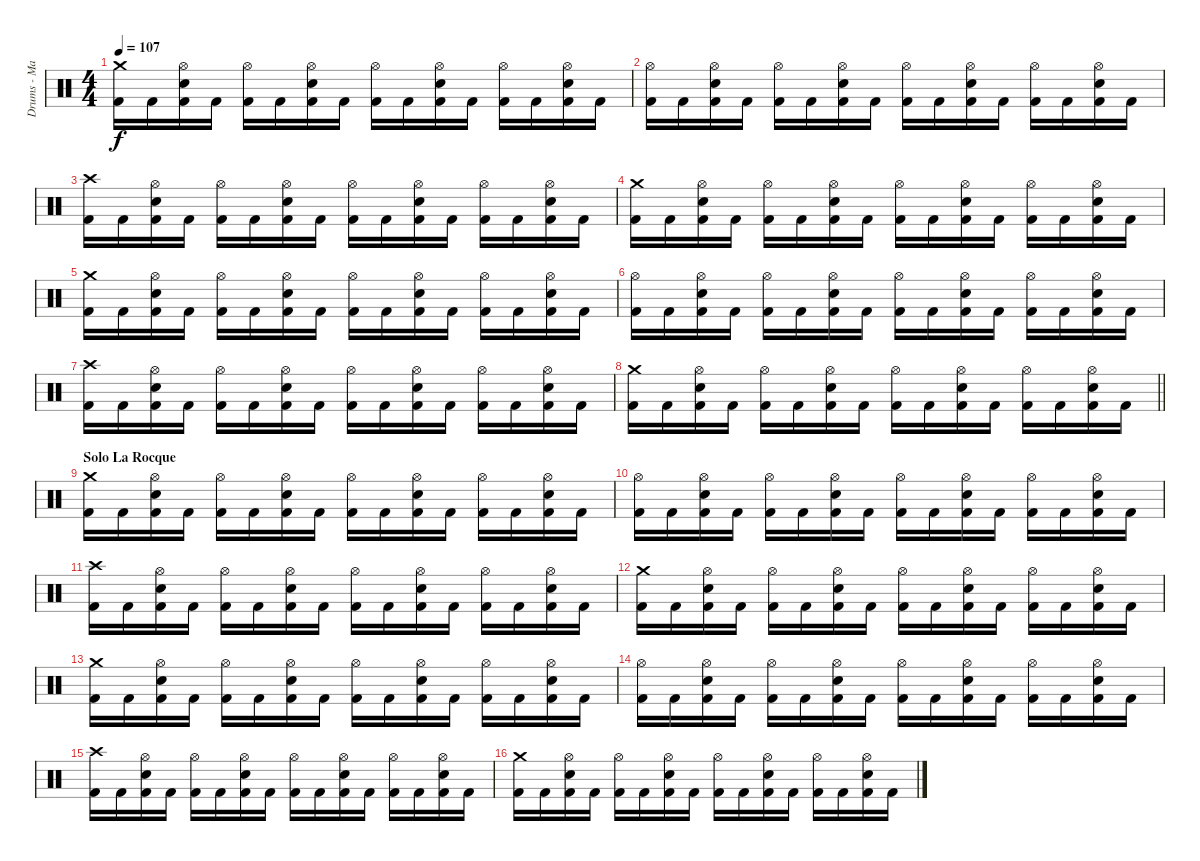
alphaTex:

\track ("Drums - Matt Thompson" "Drums - Ma") {instrument percussion}
\staff {score}
\articulation defaults
\ts (4 4)
\tempo 107
\clef neutral
\ks c
("Crash medium (hit)" "Kick (hit) 2").16{dy f} "Kick (hit) 2".16 ("Hi-Hat (open)" "Snare (hit) 2" "Kick (hit) 2").16 "Kick (hit) 2".16 ("Hi-Hat (open)" "Kick (hit) 2").16 "Kick (hit) 2".16 ("Hi-Hat (open)" "Snare (hit) 2" "Kick (hit) 2").16 "Kick (hit) 2".16 ("Hi-Hat (open)" "Kick (hit) 2").16 "Kick (hit) 2".16 ("Hi-Hat (open)" "Snare (hit) 2" "Kick (hit) 2").16 "Kick (hit) 2".16 ("Hi-Hat (open)" "Kick (hit) 2").16 "Kick (hit) 2".16 ("Hi-Hat (open)" "Snare (hit) 2" "Kick (hit) 2").16 "Kick (hit) 2".16 |
("Hi-Hat (open)" "Kick (hit) 2").16 "Kick (hit) 2".16 ("Hi-Hat (open)" "Snare (hit) 2" "Kick (hit) 2").16 "Kick (hit) 2".16 ("Hi-Hat (open)" "Kick (hit) 2").16 "Kick (hit) 2".16 ("Hi-Hat (open)" "Snare (hit) 2" "Kick (hit) 2").16 "Kick (hit) 2".16 ("Hi-Hat (open)" "Kick (hit) 2").16 "Kick (hit) 2".16 ("Hi-Hat (open)" "Snare (hit) 2" "Kick (hit) 2").16 "Kick (hit) 2".16 ("Hi-Hat (open)" "Kick (hit) 2").16 "Kick (hit) 2".16 ("Hi-Hat (open)" "Snare (hit) 2" "Kick (hit) 2").16 "Kick (hit) 2".16 |
("Crash high (hit)" "Kick (hit) 2").16 "Kick (hit) 2".16 ("Hi-Hat (open)" "Snare (hit) 2" "Kick (hit) 2").16 "Kick (hit) 2".16 ("Hi-Hat (open)" "Kick (hit) 2").16 "Kick (hit) 2".16 ("Hi-Hat (open)" "Snare (hit) 2" "Kick (hit) 2").16 "Kick (hit) 2".16 ("Hi-Hat (open)" "Kick (hit) 2").16 "Kick (hit) 2".16 ("Hi-Hat (open)" "Snare (hit) 2" "Kick (hit) 2").16 "Kick (hit) 2".16 ("Hi-Hat (open)" "Kick (hit) 2").16 "Kick (hit) 2".16 ("Hi-Hat (open)" "Snare (hit) 2" "Kick (hit) 2").16 "Kick (hit) 2".16 |
("Crash medium (hit)" "Kick (hit) 2").16 "Kick (hit) 2".16 ("Hi-Hat (open)" "Snare (hit) 2" "Kick (hit) 2").16 "Kick (hit) 2".16 ("Hi-Hat (open)" "Kick (hit) 2").16 "Kick (hit) 2".16 ("Hi-Hat (open)" "Snare (hit) 2" "Kick (hit) 2").16 "Kick (hit) 2".16 ("Hi-Hat (open)" "Kick (hit) 2").16 "Kick (hit) 2".16 ("Hi-Hat (open)" "Snare (hit) 2" "Kick (hit) 2").16 "Kick (hit) 2".16 ("Hi-Hat (open)" "Kick (hit) 2").16 "Kick (hit) 2".16 ("Hi-Hat (open)" "Snare (hit) 2" "Kick (hit) 2").16 "Kick (hit) 2".16 |
("Crash medium (hit)" "Kick (hit) 2").16 "Kick (hit) 2".16 ("Hi-Hat (open)" "Snare (hit) 2" "Kick (hit) 2").16 "Kick (hit) 2".16 ("Hi-Hat (open)" "Kick (hit) 2").16 "Kick (hit) 2".16 ("Hi-Hat (open)" "Snare (hit) 2" "Kick (hit) 2").16 "Kick (hit) 2".16 ("Hi-Hat (open)" "Kick (hit) 2").16 "Kick (hit) 2".16 ("Hi-Hat (open)" "Snare (hit) 2" "Kick (hit) 2").16 "Kick (hit) 2".16 ("Hi-Hat (open)" "Kick (hit) 2").16 "Kick (hit) 2".16 ("Hi-Hat (open)" "Snare (hit) 2" "Kick (hit) 2").16 "Kick (hit) 2".16 |
("Hi-Hat (open)" "Kick (hit) 2").16 "Kick (hit) 2".16 ("Hi-Hat (open)" "Snare (hit) 2" "Kick (hit) 2").16 "Kick (hit) 2".16 ("Hi-Hat (open)" "Kick (hit) 2").16 "Kick (hit) 2".16 ("Hi-Hat (open)" "Snare (hit) 2" "Kick (hit) 2").16 "Kick (hit) 2".16 ("Hi-Hat (open)" "Kick (hit) 2").16 "Kick (hit) 2".16 ("Hi-Hat (open)" "Snare (hit) 2" "Kick (hit) 2").16 "Kick (hit) 2".16 ("Hi-Hat (open)" "Kick (hit) 2").16 "Kick (hit) 2".16 ("Hi-Hat (open)" "Snare (hit) 2" "Kick (hit) 2").16 "Kick (hit) 2".16 |
("Crash high (hit)" "Kick (hit) 2").16 "Kick (hit) 2".16 ("Hi-Hat (open)" "Snare (hit) 2" "Kick (hit) 2").16 "Kick (hit) 2".16 ("Hi-Hat (open)" "Kick (hit) 2").16 "Kick (hit) 2".16 ("Hi-Hat (open)" "Snare (hit) 2" "Kick (hit) 2").16 "Kick (hit) 2".16 ("Hi-Hat (open)" "Kick (hit) 2").16 "Kick (hit) 2".16 ("Hi-Hat (open)" "Snare (hit) 2" "Kick (hit) 2").16 "Kick (hit) 2".16 ("Hi-Hat (open)" "Kick (hit) 2").16 "Kick (hit) 2".16 ("Hi-Hat (open)" "Snare (hit) 2" "Kick (hit) 2").16 "Kick (hit) 2".16 |
\barLineRight lightlight
("Crash medium (hit)" "Kick (hit) 2").16 "Kick (hit) 2".16 ("Hi-Hat (open)" "Snare (hit) 2" "Kick (hit) 2").16 "Kick (hit) 2".16 ("Hi-Hat (open)" "Kick (hit) 2").16 "Kick (hit) 2".16 ("Hi-Hat (open)" "Snare (hit) 2" "Kick (hit) 2").16 "Kick (hit) 2".16 ("Hi-Hat (open)" "Kick (hit) 2").16 "Kick (hit) 2".16 ("Hi-Hat (open)" "Snare (hit) 2" "Kick (hit) 2").16 "Kick (hit) 2".16 ("Hi-Hat (open)" "Kick (hit) 2").16 "Kick (hit) 2".16 ("Hi-Hat (open)" "Snare (hit) 2" "Kick (hit) 2").16 "Kick (hit) 2".16 |
\section ("" "Solo La Rocque")
("Crash medium (hit)" "Kick (hit) 2").16 "Kick (hit) 2".16 ("Hi-Hat (open)" "Snare (hit) 2" "Kick (hit) 2").16 "Kick (hit) 2".16 ("Hi-Hat (open)" "Kick (hit) 2").16 "Kick (hit) 2".16 ("Hi-Hat (open)" "Snare (hit) 2" "Kick (hit) 2").16 "Kick (hit) 2".16 ("Hi-Hat (open)" "Kick (hit) 2").16 "Kick (hit) 2".16 ("Hi-Hat (open)" "Snare (hit) 2" "Kick (hit) 2").16 "Kick (hit) 2".16 ("Hi-Hat (open)" "Kick (hit) 2").16 "Kick (hit) 2".16 ("Hi-Hat (open)" "Snare (hit) 2" "Kick (hit) 2").16 "Kick (hit) 2".16 |
("Hi-Hat (open)" "Kick (hit) 2").16 "Kick (hit) 2".16 ("Hi-Hat (open)" "Snare (hit) 2" "Kick (hit) 2").16 "Kick (hit) 2".16 ("Hi-Hat (open)" "Kick (hit) 2").16 "Kick (hit) 2".16 ("Hi-Hat (open)" "Snare (hit) 2" "Kick (hit) 2").16 "Kick (hit) 2".16 ("Hi-Hat (open)" "Kick (hit) 2").16 "Kick (hit) 2".16 ("Hi-Hat (open)" "Snare (hit) 2" "Kick (hit) 2").16 "Kick (hit) 2".16 ("Hi-Hat (open)" "Kick (hit) 2").16 "Kick (hit) 2".16 ("Hi-Hat (open)" "Snare (hit) 2" "Kick (hit) 2").16 "Kick (hit) 2".16 |
("Crash high (hit)" "Kick (hit) 2").16 "Kick (hit) 2".16 ("Hi-Hat (open)" "Snare (hit) 2" "Kick (hit) 2").16 "Kick (hit) 2".16 ("Hi-Hat (open)" "Kick (hit) 2").16 "Kick (hit) 2".16 ("Hi-Hat (open)" "Snare (hit) 2" "Kick (hit) 2").16 "Kick (hit) 2".16 ("Hi-Hat (open)" "Kick (hit) 2").16 "Kick (hit) 2".16 ("Hi-Hat (open)" "Snare (hit) 2" "Kick (hit) 2").16 "Kick (hit) 2".16 ("Hi-Hat (open)" "Kick (hit) 2").16 "Kick (hit) 2".16 ("Hi-Hat (open)" "Snare (hit) 2" "Kick (hit) 2").16 "Kick (hit) 2".16 |
("Crash medium (hit)" "Kick (hit) 2").16 "Kick (hit) 2".16 ("Hi-Hat (open)" "Snare (hit) 2" "Kick (hit) 2").16 "Kick (hit) 2".16 ("Hi-Hat (open)" "Kick (hit) 2").16 "Kick (hit) 2".16 ("Hi-Hat (open)" "Snare (hit) 2" "Kick (hit) 2").16 "Kick (hit) 2".16 ("Hi-Hat (open)" "Kick (hit) 2").16 "Kick (hit) 2".16 ("Hi-Hat (open)" "Snare (hit) 2" "Kick (hit) 2").16 "Kick (hit) 2".16 ("Hi-Hat (open)" "Kick (hit) 2").16 "Kick (hit) 2".16 ("Hi-Hat (open)" "Snare (hit) 2" "Kick (hit) 2").16 "Kick (hit) 2".16 |
("Crash medium (hit)" "Kick (hit) 2").16 "Kick (hit) 2".16 ("Hi-Hat (open)" "Snare (hit) 2" "Kick (hit) 2").16 "Kick (hit) 2".16 ("Hi-Hat (open)" "Kick (hit) 2").16 "Kick (hit) 2".16 ("Hi-Hat (open)" "Snare (hit) 2" "Kick (hit) 2").16 "Kick (hit) 2".16 ("Hi-Hat (open)" "Kick (hit) 2").16 "Kick (hit) 2".16 ("Hi-Hat (open)" "Snare (hit) 2" "Kick (hit) 2").16 "Kick (hit) 2".16 ("Hi-Hat (open)" "Kick (hit) 2").16 "Kick (hit) 2".16 ("Hi-Hat (open)" "Snare (hit) 2" "Kick (hit) 2").16 "Kick (hit) 2".16 |
("Hi-Hat (open)" "Kick (hit) 2").16 "Kick (hit) 2".16 ("Hi-Hat (open)" "Snare (hit) 2" "Kick (hit) 2").16 "Kick (hit) 2".16 ("Hi-Hat (open)" "Kick (hit) 2").16 "Kick (hit) 2".16 ("Hi-Hat (open)" "Snare (hit) 2" "Kick (hit) 2").16 "Kick (hit) 2".16 ("Hi-Hat (open)" "Kick (hit) 2").16 "Kick (hit) 2".16 ("Hi-Hat (open)" "Snare (hit) 2" "Kick (hit) 2").16 "Kick (hit) 2".16 ("Hi-Hat (open)" "Kick (hit) 2").16 "Kick (hit) 2".16 ("Hi-Hat (open)" "Snare (hit) 2" "Kick (hit) 2").16 "Kick (hit) 2".16 |
("Crash high (hit)" "Kick (hit) 2").16 "Kick (hit) 2".16 ("Hi-Hat (open)" "Snare (hit) 2" "Kick (hit) 2").16 "Kick (hit) 2".16 ("Hi-Hat (open)" "Kick (hit) 2").16 "Kick (hit) 2".16 ("Hi-Hat (open)" "Snare (hit) 2" "Kick (hit) 2").16 "Kick (hit) 2".16 ("Hi-Hat (open)" "Kick (hit) 2").16 "Kick (hit) 2".16 ("Hi-Hat (open)" "Snare (hit) 2" "Kick (hit) 2").16 "Kick (hit) 2".16 ("Hi-Hat (open)" "Kick (hit) 2").16 "Kick (hit) 2".16 ("Hi-Hat (open)" "Snare (hit) 2" "Kick (hit) 2").16 "Kick (hit) 2".16 |
("Crash medium (hit)" "Kick (hit) 2").16 "Kick (hit) 2".16 ("Hi-Hat (open)" "Snare (hit) 2" "Kick (hit) 2").16 "Kick (hit) 2".16 ("Hi-Hat (open)" "Kick (hit) 2").16 "Kick (hit) 2".16 ("Hi-Hat (open)" "Snare (hit) 2" "Kick (hit) 2").16 "Kick (hit) 2".16 ("Hi-Hat (open)" "Kick (hit) 2").16 "Kick (hit) 2".16 ("Hi-Hat (open)" "Snare (hit) 2" "Kick (hit) 2").16 "Kick (hit) 2".16 ("Hi-Hat (open)" "Kick (hit) 2").16 "Kick (hit) 2".16 ("Hi-Hat (open)" "Snare (hit) 2" "Kick (hit) 2").16 "Kick (hit) 2".16
